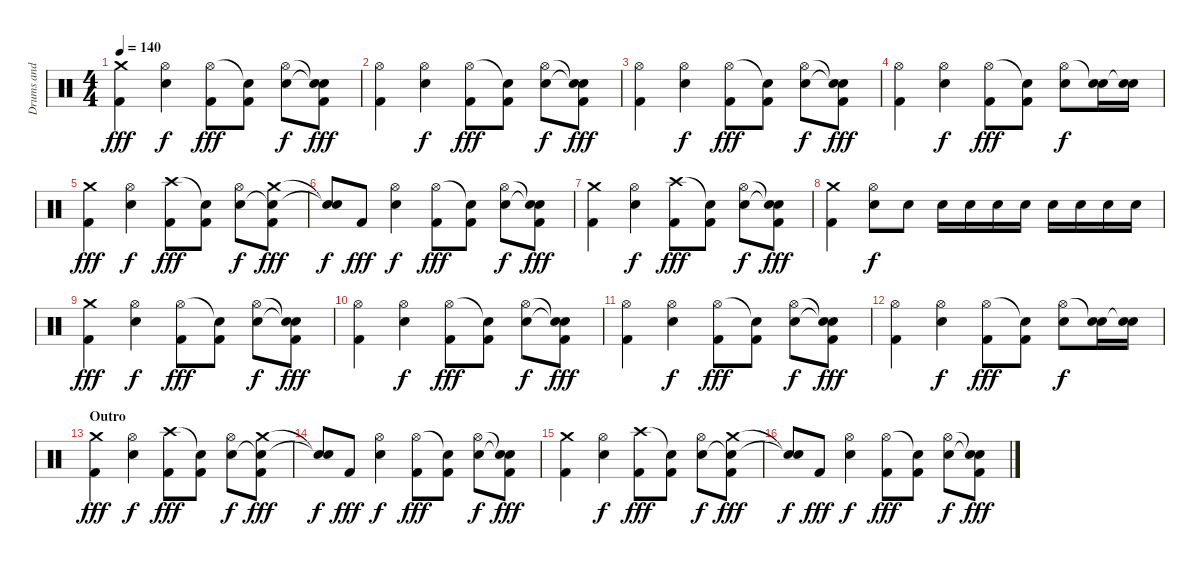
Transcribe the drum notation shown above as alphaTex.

\track ("Drums and Percussion" "Drums and ") {instrument percussion}
\staff {score}
\articulation defaults
\ts (4 4)
\tempo 140
\clef neutral
\ks c
("Crash medium (hit)" "Kick (hit) 2").4{dy fff} ("Hi-Hat (open)" "Snare (hit) 2").4{dy f} ("Hi-Hat (open)" "Kick (hit) 2").8{dy fff} ("Snare (hit)"{t} "Kick (hit) 2").8 ("Hi-Hat (open)" "Snare (hit) 2").8{dy f} ("Snare (hit)"{t} "Snare (hit)"{t} "Kick (hit) 2").8{dy fff} |
("Hi-Hat (open)" "Kick (hit) 2").4 ("Hi-Hat (open)" "Snare (hit) 2").4{dy f} ("Hi-Hat (open)" "Kick (hit) 2").8{dy fff} ("Snare (hit)"{t} "Kick (hit) 2").8 ("Hi-Hat (open)" "Snare (hit) 2").8{dy f} ("Snare (hit)"{t} "Snare (hit)"{t} "Kick (hit) 2").8{dy fff} |
("Hi-Hat (open)" "Kick (hit) 2").4 ("Hi-Hat (open)" "Snare (hit) 2").4{dy f} ("Hi-Hat (open)" "Kick (hit) 2").8{dy fff} ("Snare (hit)"{t} "Kick (hit) 2").8 ("Hi-Hat (open)" "Snare (hit) 2").8{dy f} ("Snare (hit)"{t} "Snare (hit)"{t} "Kick (hit) 2").8{dy fff} |
("Hi-Hat (open)" "Kick (hit) 2").4 ("Hi-Hat (open)" "Snare (hit) 2").4{dy f} ("Hi-Hat (open)" "Kick (hit) 2").8{dy fff} ("Snare (hit)"{t} "Kick (hit) 2").8 ("Hi-Hat (open)" "Snare (hit) 2").8{dy f} ("Snare (hit)"{t} "Snare (hit) 2").16 ("Snare (hit)"{t} "Snare (hit) 2").16 |
("Crash medium (hit)" "Kick (hit) 2").4{dy fff} ("Hi-Hat (open)" "Snare (hit) 2").4{dy f} ("Crash high (hit)" "Kick (hit) 2").8{dy fff} ("Snare (hit)"{t} "Kick (hit) 2").8 ("Hi-Hat (open)" "Snare (hit) 2").8{dy f} ("Crash medium (hit)" "Snare (hit)"{t} "Kick (hit) 2").8{dy fff} |
("Snare (hit)"{t} "Snare (hit)"{t}).8{dy f} "Kick (hit) 2".8{dy fff} ("Hi-Hat (open)" "Snare (hit) 2").4{dy f} ("Hi-Hat (open)" "Kick (hit) 2").8{dy fff} ("Snare (hit)"{t} "Kick (hit) 2").8 ("Hi-Hat (open)" "Snare (hit) 2").8{dy f} ("Snare (hit)"{t} "Snare (hit)"{t} "Kick (hit) 2").8{dy fff} |
("Crash medium (hit)" "Kick (hit) 2").4 ("Hi-Hat (open)" "Snare (hit) 2").4{dy f} ("Crash high (hit)" "Kick (hit) 2").8{dy fff} ("Snare (hit)"{t} "Kick (hit) 2").8 ("Hi-Hat (open)" "Snare (hit) 2").8{dy f} ("Snare (hit)"{t} "Snare (hit)"{t} "Kick (hit) 2").8{dy fff} |
("Crash medium (hit)" "Kick (hit) 2").4 ("Hi-Hat (open)" "Snare (hit) 2").8{dy f} "Snare (hit) 2".8 "Snare (hit) 2".16 "Snare (hit) 2".16 "Snare (hit) 2".16 "Snare (hit) 2".16 "Snare (hit) 2".16 "Snare (hit) 2".16 "Snare (hit) 2".16 "Snare (hit) 2".16 |
("Crash medium (hit)" "Kick (hit) 2").4{dy fff} ("Hi-Hat (open)" "Snare (hit) 2").4{dy f} ("Hi-Hat (open)" "Kick (hit) 2").8{dy fff} ("Snare (hit)"{t} "Kick (hit) 2").8 ("Hi-Hat (open)" "Snare (hit) 2").8{dy f} ("Snare (hit)"{t} "Snare (hit)"{t} "Kick (hit) 2").8{dy fff} |
("Hi-Hat (open)" "Kick (hit) 2").4 ("Hi-Hat (open)" "Snare (hit) 2").4{dy f} ("Hi-Hat (open)" "Kick (hit) 2").8{dy fff} ("Snare (hit)"{t} "Kick (hit) 2").8 ("Hi-Hat (open)" "Snare (hit) 2").8{dy f} ("Snare (hit)"{t} "Snare (hit)"{t} "Kick (hit) 2").8{dy fff} |
("Hi-Hat (open)" "Kick (hit) 2").4 ("Hi-Hat (open)" "Snare (hit) 2").4{dy f} ("Hi-Hat (open)" "Kick (hit) 2").8{dy fff} ("Snare (hit)"{t} "Kick (hit) 2").8 ("Hi-Hat (open)" "Snare (hit) 2").8{dy f} ("Snare (hit)"{t} "Snare (hit)"{t} "Kick (hit) 2").8{dy fff} |
("Hi-Hat (open)" "Kick (hit) 2").4 ("Hi-Hat (open)" "Snare (hit) 2").4{dy f} ("Hi-Hat (open)" "Kick (hit) 2").8{dy fff} ("Snare (hit)"{t} "Kick (hit) 2").8 ("Hi-Hat (open)" "Snare (hit) 2").8{dy f} ("Snare (hit)"{t} "Snare (hit) 2").16 ("Snare (hit)"{t} "Snare (hit) 2").16 |
\section ("" "Outro")
("Crash medium (hit)" "Kick (hit) 2").4{dy fff} ("Hi-Hat (open)" "Snare (hit) 2").4{dy f} ("Crash high (hit)" "Kick (hit) 2").8{dy fff} ("Snare (hit)"{t} "Kick (hit) 2").8 ("Hi-Hat (open)" "Snare (hit) 2").8{dy f} ("Crash medium (hit)" "Snare (hit)"{t} "Kick (hit) 2").8{dy fff} |
("Snare (hit)"{t} "Snare (hit)"{t}).8{dy f} "Kick (hit) 2".8{dy fff} ("Hi-Hat (open)" "Snare (hit) 2").4{dy f} ("Hi-Hat (open)" "Kick (hit) 2").8{dy fff} ("Snare (hit)"{t} "Kick (hit) 2").8 ("Hi-Hat (open)" "Snare (hit) 2").8{dy f} ("Snare (hit)"{t} "Snare (hit)"{t} "Kick (hit) 2").8{dy fff} |
("Crash medium (hit)" "Kick (hit) 2").4 ("Hi-Hat (open)" "Snare (hit) 2").4{dy f} ("Crash high (hit)" "Kick (hit) 2").8{dy fff} ("Snare (hit)"{t} "Kick (hit) 2").8 ("Hi-Hat (open)" "Snare (hit) 2").8{dy f} ("Crash medium (hit)" "Snare (hit)"{t} "Kick (hit) 2").8{dy fff} |
("Snare (hit)"{t} "Snare (hit)"{t}).8{dy f} "Kick (hit) 2".8{dy fff} ("Hi-Hat (open)" "Snare (hit) 2").4{dy f} ("Hi-Hat (open)" "Kick (hit) 2").8{dy fff} ("Snare (hit)"{t} "Kick (hit) 2").8 ("Hi-Hat (open)" "Snare (hit) 2").8{dy f} ("Snare (hit)"{t} "Snare (hit)"{t} "Kick (hit) 2").8{dy fff}
